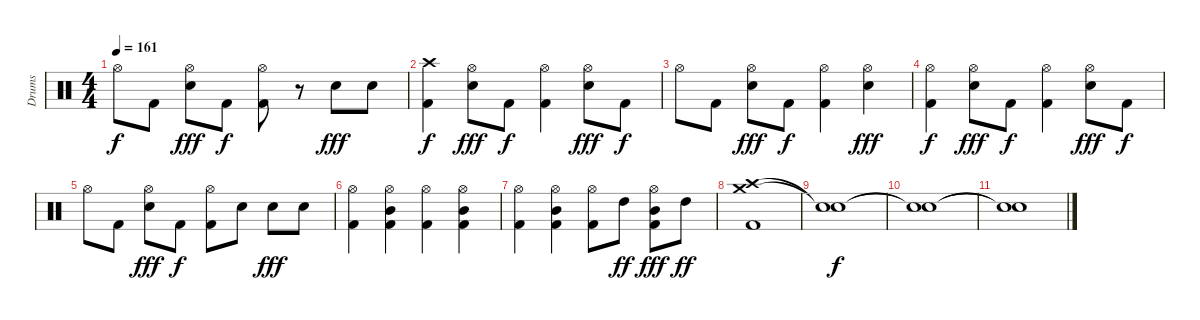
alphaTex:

\track ("Drums" "Drums") {instrument percussion}
\staff {score}
\articulation defaults
\ts (4 4)
\tempo 161
\clef neutral
\ks c "Hi-Hat (open)".8{dy f} "Kick (hit) 2".8
("Hi-Hat (open)" "Electric Snare (hit)").8{dy fff} "Kick (hit) 2".8{dy f} ("Hi-Hat (open)" "Kick (hit) 2").8 r.8 "Electric Snare (hit)".8{dy fff} "Electric Snare (hit)".8 |
("Crash high (hit)" "Kick (hit) 2").4{dy f} ("Hi-Hat (open)" "Electric Snare (hit)").8{dy fff} "Kick (hit) 2".8{dy f} ("Hi-Hat (open)" "Kick (hit) 2").4 ("Hi-Hat (open)" "Electric Snare (hit)").8{dy fff} "Kick (hit) 2".8{dy f} |
"Hi-Hat (open)".8 "Kick (hit) 2".8 ("Hi-Hat (open)" "Electric Snare (hit)").8{dy fff} "Kick (hit) 2".8{dy f} ("Hi-Hat (open)" "Kick (hit) 2").4 ("Hi-Hat (open)" "Electric Snare (hit)").4{dy fff} |
("Hi-Hat (open)" "Kick (hit) 2").4{dy f} ("Hi-Hat (open)" "Electric Snare (hit)").8{dy fff} "Kick (hit) 2".8{dy f} ("Hi-Hat (open)" "Kick (hit) 2").4 ("Hi-Hat (open)" "Electric Snare (hit)").8{dy fff} "Kick (hit) 2".8{dy f} |
"Hi-Hat (open)".8 "Kick (hit) 2".8 ("Hi-Hat (open)" "Electric Snare (hit)").8{dy fff} "Kick (hit) 2".8{dy f} ("Hi-Hat (open)" "Kick (hit) 2").8 "Electric Snare (hit)".8 "Electric Snare (hit)".8{dy fff} "Electric Snare (hit)".8 |
("Hi-Hat (open)" "Kick (hit) 2").4 ("Hi-Hat (open)" "Mid Tom (hit)" "Kick (hit) 2").4 ("Hi-Hat (open)" "Kick (hit) 2").4 ("Hi-Hat (open)" "Mid Tom (hit)" "Kick (hit) 2").4 |
("Hi-Hat (open)" "Kick (hit) 2").4 ("Hi-Hat (open)" "Mid Tom (hit)" "Kick (hit) 2").4 ("Hi-Hat (open)" "Kick (hit) 2").8 "High Tom (hit)".8{dy ff} ("Hi-Hat (open)" "Mid Tom (hit)" "Kick (hit) 2").8{dy fff} "High Tom (hit)".8{dy ff} |
("Crash high (hit)" "Crash medium (hit)" "Kick (hit) 2").1 |
("Snare (hit)"{t} "Snare (hit)"{t}).1{dy f} |
("Snare (hit)"{t} "Snare (hit)"{t}).1 |
("Snare (hit)"{t} "Snare (hit)"{t}).1
